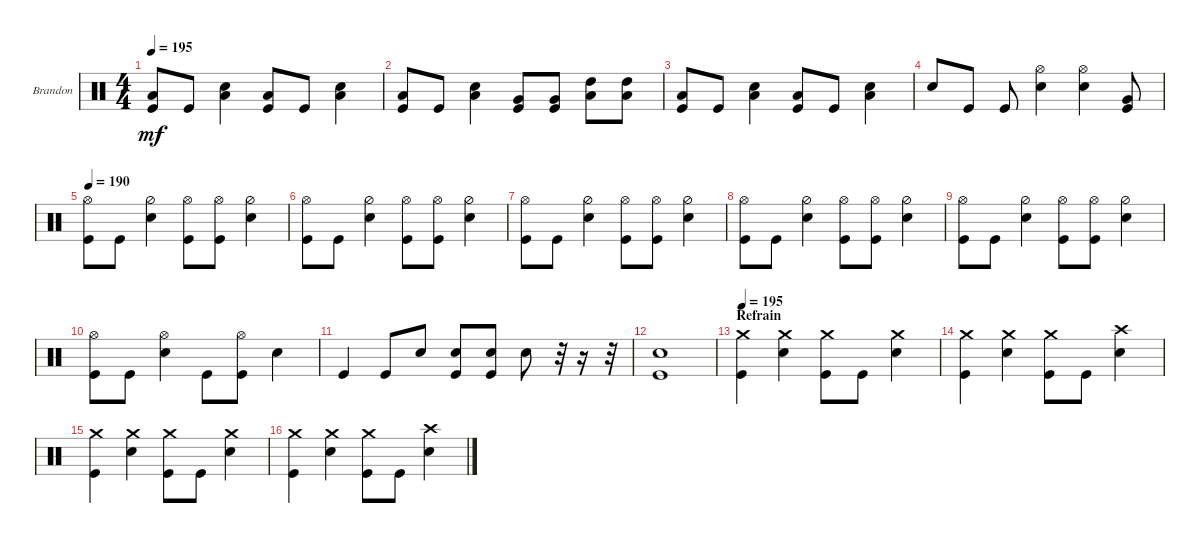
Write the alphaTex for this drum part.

\defaultSystemsLayout 4
\bracketExtendMode groupsimilarinstruments
\firstSystemTrackNameOrientation horizontal
\otherSystemsTrackNameOrientation horizontal
\track ("Drumkit" "Brandon") {instrument percussion}
\staff {score}
\articulation defaults
\ts (4 4)
\tempo 195
\clef neutral
\scale
0.333333
\ks c
("Kick (hit)" "Low Tom (hit)").8{dy mf} "Kick (hit)".8 ("Snare (hit) 2" "Low Tom (hit)").4 ("Kick (hit)" "Low Tom (hit)").8 "Kick (hit)".8 ("Snare (hit) 2" "Low Tom (hit)").4 |
\scale
0.333333 ("Kick (hit)" "Low Tom (hit)").8 "Kick (hit)".8 ("Snare (hit) 2" "Low Tom (hit)").4 ("Very Low Tom (hit)" "Kick (hit)").8 ("Very Low Tom (hit)" "Kick (hit)").8 ("Low Tom (hit)" "High Tom (hit)").8 ("Low Tom (hit)" "High Tom (hit)").8 |
\scale
0.333333 ("Kick (hit)" "Low Tom (hit)").8 "Kick (hit)".8 ("Snare (hit) 2" "Low Tom (hit)").4 ("Kick (hit)" "Low Tom (hit)").8 "Kick (hit)".8 ("Snare (hit) 2" "Low Tom (hit)").4 |
\scale
0.333333 "Snare (hit) 2".8 "Kick (hit)".8 "Kick (hit)".8 ("Hi-Hat (open)" "Snare (hit) 2").4 ("Hi-Hat (open)" "Snare (hit) 2").4 ("Very Low Tom (hit)" "Kick (hit)").8 |
\tempo (190 0.00625)
\scale
0.333333 ("Kick (hit)" "Hi-Hat (open)").8 "Kick (hit)".8 ("Snare (hit) 2" "Hi-Hat (half)").4 ("Kick (hit)" "Hi-Hat (open)").8 ("Kick (hit)" "Hi-Hat (open)").8 ("Snare (hit) 2" "Hi-Hat (half)").4 |
\scale
0.333333 ("Kick (hit)" "Hi-Hat (open)").8 "Kick (hit)".8 ("Snare (hit) 2" "Hi-Hat (half)").4 ("Kick (hit)" "Hi-Hat (open)").8 ("Kick (hit)" "Hi-Hat (open)").8 ("Snare (hit) 2" "Hi-Hat (half)").4 |
\scale
0.333333 ("Kick (hit)" "Hi-Hat (open)").8 "Kick (hit)".8 ("Snare (hit) 2" "Hi-Hat (half)").4 ("Kick (hit)" "Hi-Hat (open)").8 ("Kick (hit)" "Hi-Hat (open)").8 ("Snare (hit) 2" "Hi-Hat (half)").4 |
\scale
0.333333 ("Kick (hit)" "Hi-Hat (open)").8 "Kick (hit)".8 ("Snare (hit) 2" "Hi-Hat (half)").4 ("Kick (hit)" "Hi-Hat (open)").8 ("Kick (hit)" "Hi-Hat (open)").8 ("Snare (hit) 2" "Hi-Hat (half)").4 |
\scale
0.333333 ("Kick (hit)" "Hi-Hat (open)").8 "Kick (hit)".8 ("Snare (hit) 2" "Hi-Hat (half)").4 ("Kick (hit)" "Hi-Hat (open)").8 ("Kick (hit)" "Hi-Hat (open)").8 ("Snare (hit) 2" "Hi-Hat (half)").4 |
\scale
0.333333 ("Kick (hit)" "Hi-Hat (open)").8 "Kick (hit)".8 ("Snare (hit) 2" "Hi-Hat (open)").4 "Kick (hit)".8 ("Kick (hit)" "Hi-Hat (open)").8 "Snare (hit) 2".4 |
\scale
0.333333 "Kick (hit)".4 "Kick (hit)".8 "Snare (hit) 2".8 ("Snare (hit) 2" "Kick (hit)").8 ("Snare (hit) 2" "Kick (hit)").8 "Snare (hit) 2".8 r.32 r.16 r.32 |
\scale
0.333333 ("Kick (hit)" "Snare (hit) 2").1 |
\section ("" "Refrain")
\tempo 195
\scale
0.333333 ("Kick (hit)" "Crash medium (hit)").4 ("Snare (hit) 2" "Crash medium (hit)").4 ("Kick (hit)" "Crash medium (hit)").8 "Kick (hit)".8 ("Snare (hit) 2" "Crash medium (hit)").4 |
\scale
0.333333 ("Kick (hit)" "Crash medium (hit)").4 ("Snare (hit) 2" "Crash medium (hit)").4 ("Kick (hit)" "Crash medium (hit)").8 "Kick (hit)".8 ("Snare (hit) 2" "Crash high (hit)").4 |
\scale
0.333333 ("Kick (hit)" "Crash medium (hit)").4 ("Snare (hit) 2" "Crash medium (hit)").4 ("Kick (hit)" "Crash medium (hit)").8 "Kick (hit)".8 ("Snare (hit) 2" "Crash medium (hit)").4 |
\scale
0.333333 ("Kick (hit)" "Crash medium (hit)").4 ("Snare (hit) 2" "Crash medium (hit)").4 ("Kick (hit)" "Crash medium (hit)").8 "Kick (hit)".8 ("Snare (hit) 2" "Crash high (hit)").4
